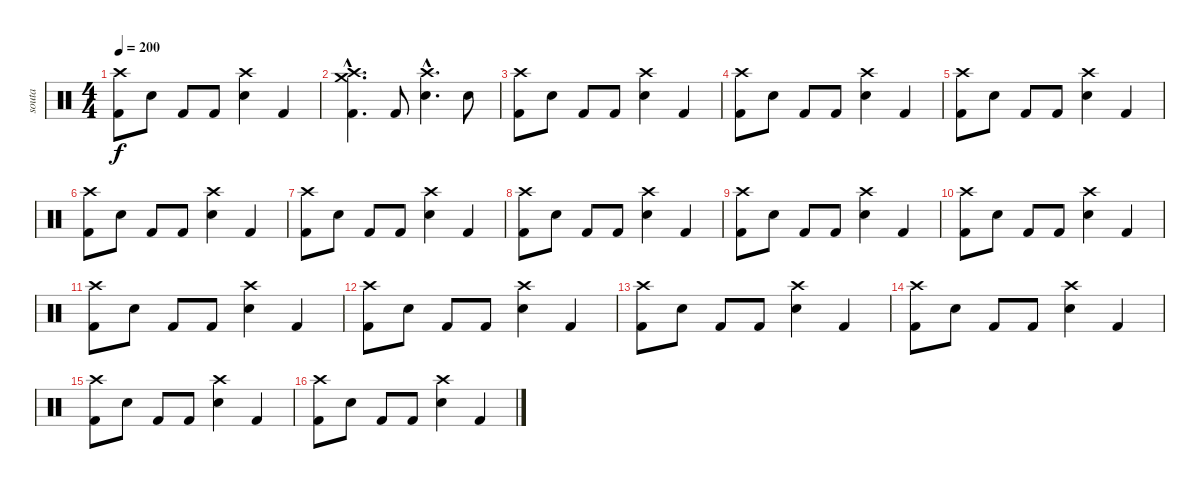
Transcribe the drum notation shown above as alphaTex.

\track ("souta" "souta") {instrument percussion}
\staff {score}
\articulation defaults
\ts (4 4)
\tempo 200
\clef neutral
\ks c
("Crash high (hit)" "Kick (hit) 2").8{dy f} "Snare (hit) 2".8 "Kick (hit) 2".8 "Kick (hit) 2".8 ("Crash high (hit)" "Snare (hit) 2").4 "Kick (hit) 2".4 |
("Crash high (hit)"{hac} "Kick (hit) 2"{hac} "Crash medium (hit)"{hac}).4{d} "Kick (hit) 2".8 ("Crash high (hit)"{hac} "Snare (hit) 2"{hac}).4{d} "Snare (hit) 2".8 |
("Crash high (hit)" "Kick (hit) 2").8 "Snare (hit) 2".8 "Kick (hit) 2".8 "Kick (hit) 2".8 ("Crash high (hit)" "Snare (hit) 2").4 "Kick (hit) 2".4 |
("Crash high (hit)" "Kick (hit) 2").8 "Snare (hit) 2".8 "Kick (hit) 2".8 "Kick (hit) 2".8 ("Crash high (hit)" "Snare (hit) 2").4 "Kick (hit) 2".4 |
("Crash high (hit)" "Kick (hit) 2").8 "Snare (hit) 2".8 "Kick (hit) 2".8 "Kick (hit) 2".8 ("Crash high (hit)" "Snare (hit) 2").4 "Kick (hit) 2".4 |
("Crash high (hit)" "Kick (hit) 2").8 "Snare (hit) 2".8 "Kick (hit) 2".8 "Kick (hit) 2".8 ("Crash high (hit)" "Snare (hit) 2").4 "Kick (hit) 2".4 |
("Crash high (hit)" "Kick (hit) 2").8 "Snare (hit) 2".8 "Kick (hit) 2".8 "Kick (hit) 2".8 ("Crash high (hit)" "Snare (hit) 2").4 "Kick (hit) 2".4 |
("Crash high (hit)" "Kick (hit) 2").8 "Snare (hit) 2".8 "Kick (hit) 2".8 "Kick (hit) 2".8 ("Crash high (hit)" "Snare (hit) 2").4 "Kick (hit) 2".4 |
("Crash high (hit)" "Kick (hit) 2").8 "Snare (hit) 2".8 "Kick (hit) 2".8 "Kick (hit) 2".8 ("Crash high (hit)" "Snare (hit) 2").4 "Kick (hit) 2".4 |
("Crash high (hit)" "Kick (hit) 2").8 "Snare (hit) 2".8 "Kick (hit) 2".8 "Kick (hit) 2".8 ("Crash high (hit)" "Snare (hit) 2").4 "Kick (hit) 2".4 |
("Crash high (hit)" "Kick (hit) 2").8 "Snare (hit) 2".8 "Kick (hit) 2".8 "Kick (hit) 2".8 ("Crash high (hit)" "Snare (hit) 2").4 "Kick (hit) 2".4 |
("Crash high (hit)" "Kick (hit) 2").8 "Snare (hit) 2".8 "Kick (hit) 2".8 "Kick (hit) 2".8 ("Crash high (hit)" "Snare (hit) 2").4 "Kick (hit) 2".4 |
("Crash high (hit)" "Kick (hit) 2").8 "Snare (hit) 2".8 "Kick (hit) 2".8 "Kick (hit) 2".8 ("Crash high (hit)" "Snare (hit) 2").4 "Kick (hit) 2".4 |
("Crash high (hit)" "Kick (hit) 2").8 "Snare (hit) 2".8 "Kick (hit) 2".8 "Kick (hit) 2".8 ("Crash high (hit)" "Snare (hit) 2").4 "Kick (hit) 2".4 |
("Crash high (hit)" "Kick (hit) 2").8 "Snare (hit) 2".8 "Kick (hit) 2".8 "Kick (hit) 2".8 ("Crash high (hit)" "Snare (hit) 2").4 "Kick (hit) 2".4 |
("Crash high (hit)" "Kick (hit) 2").8 "Snare (hit) 2".8 "Kick (hit) 2".8 "Kick (hit) 2".8 ("Crash high (hit)" "Snare (hit) 2").4 "Kick (hit) 2".4
